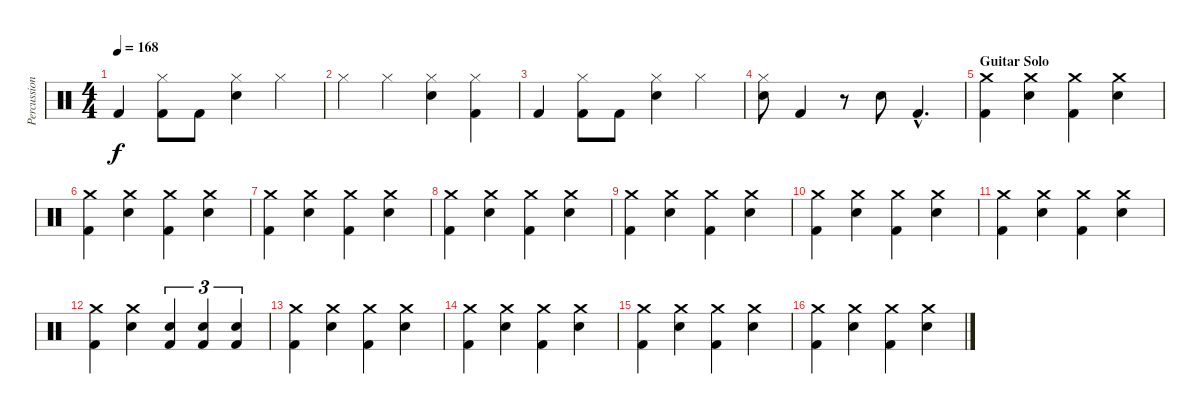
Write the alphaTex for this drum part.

\track ("Percussion" "Percussion") {instrument percussion}
\staff {score}
\articulation defaults
\ts (4 4)
\tempo 168
\clef neutral
\ks c "Kick (hit) 2".4{dy f}
("Hi-Hat (closed)" "Kick (hit) 2").8 "Kick (hit) 2".8 ("Hi-Hat (closed)" "Snare (hit) 2").4 "Hi-Hat (closed)".4 |
"Hi-Hat (closed)".4 "Hi-Hat (closed)".4 ("Hi-Hat (closed)" "Snare (hit) 2").4 ("Hi-Hat (closed)" "Kick (hit) 2").4 |
"Kick (hit) 2".4 ("Hi-Hat (closed)" "Kick (hit) 2").8 "Kick (hit) 2".8 ("Hi-Hat (closed)" "Snare (hit) 2").4 "Hi-Hat (closed)".4 |
("Hi-Hat (closed)" "Snare (hit) 2").8 "Kick (hit) 2".4 r.8 "Snare (hit) 2".8 "Kick (hit) 2"{hac}.4{d} |
\section ("" "Guitar Solo")
("Crash medium (hit)" "Kick (hit) 2").4 ("Crash medium (hit)" "Snare (hit) 2").4 ("Crash medium (hit)" "Kick (hit) 2").4 ("Crash medium (hit)" "Snare (hit) 2").4 |
("Crash medium (hit)" "Kick (hit) 2").4 ("Crash medium (hit)" "Snare (hit) 2").4 ("Crash medium (hit)" "Kick (hit) 2").4 ("Crash medium (hit)" "Snare (hit) 2").4 |
("Crash medium (hit)" "Kick (hit) 2").4 ("Crash medium (hit)" "Snare (hit) 2").4 ("Crash medium (hit)" "Kick (hit) 2").4 ("Crash medium (hit)" "Snare (hit) 2").4 |
("Crash medium (hit)" "Kick (hit) 2").4 ("Crash medium (hit)" "Snare (hit) 2").4 ("Crash medium (hit)" "Kick (hit) 2").4 ("Crash medium (hit)" "Snare (hit) 2").4 |
("Crash medium (hit)" "Kick (hit) 2").4 ("Crash medium (hit)" "Snare (hit) 2").4 ("Crash medium (hit)" "Kick (hit) 2").4 ("Crash medium (hit)" "Snare (hit) 2").4 |
("Crash medium (hit)" "Kick (hit) 2").4 ("Crash medium (hit)" "Snare (hit) 2").4 ("Crash medium (hit)" "Kick (hit) 2").4 ("Crash medium (hit)" "Snare (hit) 2").4 |
("Crash medium (hit)" "Kick (hit) 2").4 ("Crash medium (hit)" "Snare (hit) 2").4 ("Crash medium (hit)" "Kick (hit) 2").4 ("Crash medium (hit)" "Snare (hit) 2").4 |
("Crash medium (hit)" "Kick (hit) 2").4 ("Crash medium (hit)" "Snare (hit) 2").4 ("Snare (hit) 2" "Kick (hit) 2").4{tu (3 2)} ("Snare (hit) 2" "Kick (hit) 2").4{tu (3 2)} ("Snare (hit) 2" "Kick (hit) 2").4{tu (3 2)} |
("Crash medium (hit)" "Kick (hit) 2").4 ("Crash medium (hit)" "Snare (hit) 2").4 ("Crash medium (hit)" "Kick (hit) 2").4 ("Crash medium (hit)" "Snare (hit) 2").4 |
("Crash medium (hit)" "Kick (hit) 2").4 ("Crash medium (hit)" "Snare (hit) 2").4 ("Crash medium (hit)" "Kick (hit) 2").4 ("Crash medium (hit)" "Snare (hit) 2").4 |
("Crash medium (hit)" "Kick (hit) 2").4 ("Crash medium (hit)" "Snare (hit) 2").4 ("Crash medium (hit)" "Kick (hit) 2").4 ("Crash medium (hit)" "Snare (hit) 2").4 |
("Crash medium (hit)" "Kick (hit) 2").4 ("Crash medium (hit)" "Snare (hit) 2").4 ("Crash medium (hit)" "Kick (hit) 2").4 ("Crash medium (hit)" "Snare (hit) 2").4
